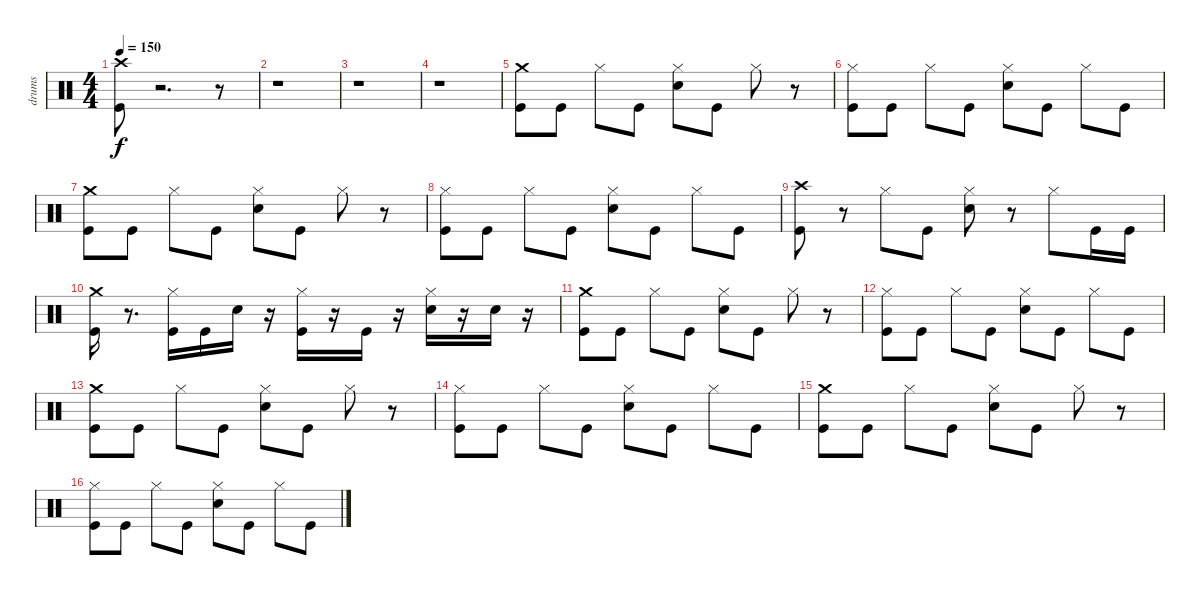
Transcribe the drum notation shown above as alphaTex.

\track ("drums" "drums") {instrument percussion}
\staff {score}
\articulation defaults
\ts (4 4)
\tempo 150
\clef neutral
\ks c
("Crash high (hit)" "Kick (hit)").8{dy f} r.2{d} r.8 |
r.1 |
r.1 |
r.1 |
("Crash medium (hit)" "Kick (hit)").8 "Kick (hit)".8 "Hi-Hat (closed)".8 "Kick (hit)".8 ("Hi-Hat (closed)" "Electric Snare (hit)").8 "Kick (hit)".8 "Hi-Hat (closed)".8 r.8 |
("Hi-Hat (closed)" "Kick (hit)").8 "Kick (hit)".8 "Hi-Hat (closed)".8 "Kick (hit)".8 ("Hi-Hat (closed)" "Electric Snare (hit)").8 "Kick (hit)".8 "Hi-Hat (closed)".8 "Kick (hit)".8 |
("Crash medium (hit)" "Kick (hit)").8 "Kick (hit)".8 "Hi-Hat (closed)".8 "Kick (hit)".8 ("Hi-Hat (closed)" "Electric Snare (hit)").8 "Kick (hit)".8 "Hi-Hat (closed)".8 r.8 |
("Hi-Hat (closed)" "Kick (hit)").8 "Kick (hit)".8 "Hi-Hat (closed)".8 "Kick (hit)".8 ("Hi-Hat (closed)" "Electric Snare (hit)").8 "Kick (hit)".8 "Hi-Hat (closed)".8 "Kick (hit)".8 |
("Crash high (hit)" "Kick (hit)").8 r.8 "Hi-Hat (closed)".8 "Kick (hit)".8 ("Hi-Hat (closed)" "Electric Snare (hit)").8 r.8 "Hi-Hat (closed)".8 "Kick (hit)".16 "Kick (hit)".16 |
("Kick (hit)" "Crash medium (hit)").16 r.8{d} ("Hi-Hat (closed)" "Kick (hit)").16 "Kick (hit)".16 "Electric Snare (hit)".16 r.16 ("Hi-Hat (closed)" "Kick (hit)").16 r.16 "Kick (hit)".16 r.16 ("Hi-Hat (closed)" "Electric Snare (hit)").16 r.16 "Electric Snare (hit)".16 r.16 |
("Crash medium (hit)" "Kick (hit)").8 "Kick (hit)".8 "Hi-Hat (closed)".8 "Kick (hit)".8 ("Hi-Hat (closed)" "Electric Snare (hit)").8 "Kick (hit)".8 "Hi-Hat (closed)".8 r.8 |
("Hi-Hat (closed)" "Kick (hit)").8 "Kick (hit)".8 "Hi-Hat (closed)".8 "Kick (hit)".8 ("Hi-Hat (closed)" "Electric Snare (hit)").8 "Kick (hit)".8 "Hi-Hat (closed)".8 "Kick (hit)".8 |
("Crash medium (hit)" "Kick (hit)").8 "Kick (hit)".8 "Hi-Hat (closed)".8 "Kick (hit)".8 ("Hi-Hat (closed)" "Electric Snare (hit)").8 "Kick (hit)".8 "Hi-Hat (closed)".8 r.8 |
("Hi-Hat (closed)" "Kick (hit)").8 "Kick (hit)".8 "Hi-Hat (closed)".8 "Kick (hit)".8 ("Hi-Hat (closed)" "Electric Snare (hit)").8 "Kick (hit)".8 "Hi-Hat (closed)".8 "Kick (hit)".8 |
("Crash medium (hit)" "Kick (hit)").8 "Kick (hit)".8 "Hi-Hat (closed)".8 "Kick (hit)".8 ("Hi-Hat (closed)" "Electric Snare (hit)").8 "Kick (hit)".8 "Hi-Hat (closed)".8 r.8 |
("Hi-Hat (closed)" "Kick (hit)").8 "Kick (hit)".8 "Hi-Hat (closed)".8 "Kick (hit)".8 ("Hi-Hat (closed)" "Electric Snare (hit)").8 "Kick (hit)".8 "Hi-Hat (closed)".8 "Kick (hit)".8
